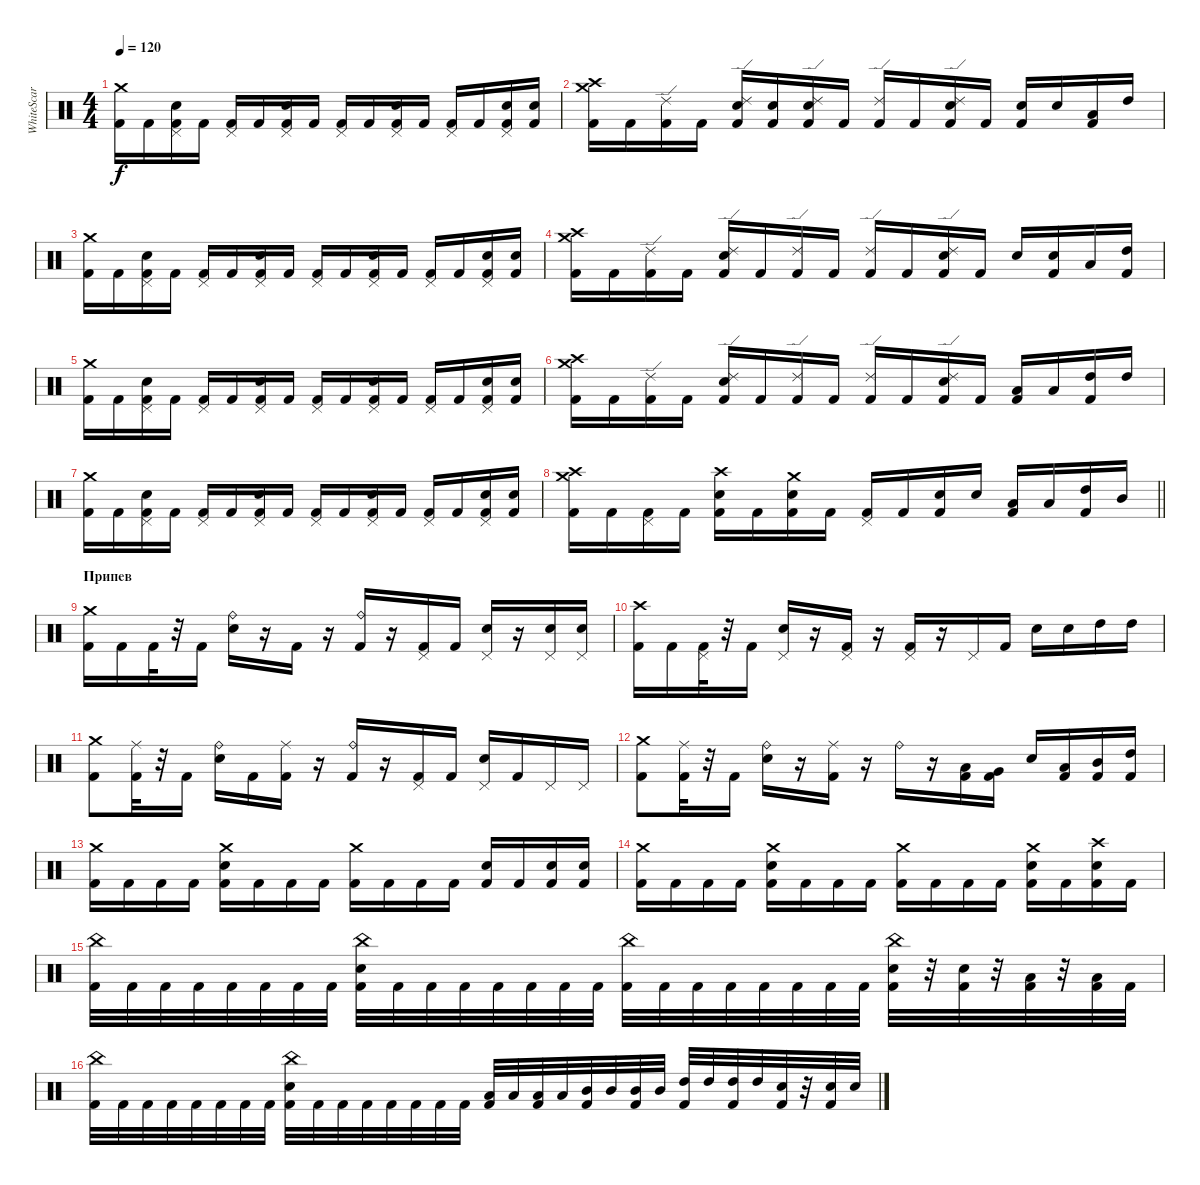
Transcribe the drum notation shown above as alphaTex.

\track ("WhiteScar" "WhiteScar") {instrument percussion}
\staff {score}
\articulation defaults
\ts (4 4)
\tempo 120
\clef neutral
\ks c
("Crash medium (hit)" "Kick (hit) 2").16{dy f} "Kick (hit) 2".16 ("Snare (hit) 2" "Pedal Hi-Hat (hit)" "Kick (hit) 2").16 "Kick (hit) 2".16 ("Pedal Hi-Hat (hit)" "Kick (hit) 2").16 "Kick (hit) 2".16 ("Snare (hit) 2" "Pedal Hi-Hat (hit)" "Kick (hit) 2").16 "Kick (hit) 2".16 ("Pedal Hi-Hat (hit)" "Kick (hit) 2").16 "Kick (hit) 2".16 ("Snare (hit) 2" "Pedal Hi-Hat (hit)" "Kick (hit) 2").16 "Kick (hit) 2".16 ("Pedal Hi-Hat (hit)" "Kick (hit) 2").16 "Kick (hit) 2".16 ("Snare (hit) 2" "Pedal Hi-Hat (hit)" "Kick (hit) 2").16 ("Snare (hit) 2" "Kick (hit) 2").16 |
("Crash high (hit)" "Crash medium (hit)" "Kick (hit) 2").16 "Kick (hit) 2".16 ("Ride (edge) 2" "Kick (hit) 2").16 "Kick (hit) 2".16 ("Snare (hit) 2" "Ride (edge) 2" "Kick (hit) 2").16 ("Snare (hit) 2" "Kick (hit) 2").16 ("Snare (hit) 2" "Ride (edge) 2" "Kick (hit) 2").16 "Kick (hit) 2".16 ("Ride (edge) 2" "Kick (hit) 2").16 "Kick (hit) 2".16 ("Snare (hit) 2" "Ride (edge) 2" "Kick (hit) 2").16 "Kick (hit) 2".16 ("Snare (hit) 2" "Kick (hit) 2").16 "Snare (hit) 2".16 ("Low Tom (hit)" "Kick (hit) 2").16 "High Tom (hit)".16 |
("Crash medium (hit)" "Kick (hit) 2").16 "Kick (hit) 2".16 ("Snare (hit) 2" "Pedal Hi-Hat (hit)" "Kick (hit) 2").16 "Kick (hit) 2".16 ("Pedal Hi-Hat (hit)" "Kick (hit) 2").16 "Kick (hit) 2".16 ("Snare (hit) 2" "Pedal Hi-Hat (hit)" "Kick (hit) 2").16 "Kick (hit) 2".16 ("Pedal Hi-Hat (hit)" "Kick (hit) 2").16 "Kick (hit) 2".16 ("Snare (hit) 2" "Pedal Hi-Hat (hit)" "Kick (hit) 2").16 "Kick (hit) 2".16 ("Pedal Hi-Hat (hit)" "Kick (hit) 2").16 "Kick (hit) 2".16 ("Snare (hit) 2" "Pedal Hi-Hat (hit)" "Kick (hit) 2").16 ("Snare (hit) 2" "Kick (hit) 2").16 |
("Crash high (hit)" "Crash medium (hit)" "Kick (hit) 2").16 "Kick (hit) 2".16 ("Ride (edge) 2" "Kick (hit) 2").16 "Kick (hit) 2".16 ("Snare (hit) 2" "Ride (edge) 2" "Kick (hit) 2").16 "Kick (hit) 2".16 ("Ride (edge) 2" "Kick (hit) 2").16 "Kick (hit) 2".16 ("Ride (edge) 2" "Kick (hit) 2").16 "Kick (hit) 2".16 ("Snare (hit) 2" "Ride (edge) 2" "Kick (hit) 2").16 "Kick (hit) 2".16 "Snare (hit) 2".16 ("Snare (hit) 2" "Kick (hit) 2").16 "Low Tom (hit)".16 ("High Tom (hit)" "Kick (hit) 2").16 |
("Crash medium (hit)" "Kick (hit) 2").16 "Kick (hit) 2".16 ("Snare (hit) 2" "Pedal Hi-Hat (hit)" "Kick (hit) 2").16 "Kick (hit) 2".16 ("Pedal Hi-Hat (hit)" "Kick (hit) 2").16 "Kick (hit) 2".16 ("Snare (hit) 2" "Pedal Hi-Hat (hit)" "Kick (hit) 2").16 "Kick (hit) 2".16 ("Pedal Hi-Hat (hit)" "Kick (hit) 2").16 "Kick (hit) 2".16 ("Snare (hit) 2" "Pedal Hi-Hat (hit)" "Kick (hit) 2").16 "Kick (hit) 2".16 ("Pedal Hi-Hat (hit)" "Kick (hit) 2").16 "Kick (hit) 2".16 ("Snare (hit) 2" "Pedal Hi-Hat (hit)" "Kick (hit) 2").16 ("Snare (hit) 2" "Kick (hit) 2").16 |
("Crash high (hit)" "Crash medium (hit)" "Kick (hit) 2").16 "Kick (hit) 2".16 ("Ride (edge) 2" "Kick (hit) 2").16 "Kick (hit) 2".16 ("Snare (hit) 2" "Ride (edge) 2" "Kick (hit) 2").16 "Kick (hit) 2".16 ("Ride (edge) 2" "Kick (hit) 2").16 "Kick (hit) 2".16 ("Ride (edge) 2" "Kick (hit) 2").16 "Kick (hit) 2".16 ("Snare (hit) 2" "Ride (edge) 2" "Kick (hit) 2").16 "Kick (hit) 2".16 ("Low Tom (hit)" "Kick (hit) 2").16 "Low Tom (hit)".16 ("High Tom (hit)" "Kick (hit) 2").16 "High Tom (hit)".16 |
("Crash medium (hit)" "Kick (hit) 2").16 "Kick (hit) 2".16 ("Snare (hit) 2" "Pedal Hi-Hat (hit)" "Kick (hit) 2").16 "Kick (hit) 2".16 ("Pedal Hi-Hat (hit)" "Kick (hit) 2").16 "Kick (hit) 2".16 ("Snare (hit) 2" "Pedal Hi-Hat (hit)" "Kick (hit) 2").16 "Kick (hit) 2".16 ("Pedal Hi-Hat (hit)" "Kick (hit) 2").16 "Kick (hit) 2".16 ("Snare (hit) 2" "Pedal Hi-Hat (hit)" "Kick (hit) 2").16 "Kick (hit) 2".16 ("Pedal Hi-Hat (hit)" "Kick (hit) 2").16 "Kick (hit) 2".16 ("Snare (hit) 2" "Pedal Hi-Hat (hit)" "Kick (hit) 2").16 ("Snare (hit) 2" "Kick (hit) 2").16 |
\barLineRight lightlight
("Crash high (hit)" "Crash medium (hit)" "Kick (hit) 2").16 "Kick (hit) 2".16 ("Pedal Hi-Hat (hit)" "Kick (hit) 2").16 "Kick (hit) 2".16 ("Crash high (hit)" "Snare (hit) 2" "Kick (hit) 2").16 "Kick (hit) 2".16 ("Crash medium (hit)" "Snare (hit) 2" "Kick (hit) 2").16 "Kick (hit) 2".16 ("Pedal Hi-Hat (hit)" "Kick (hit) 2").16 "Kick (hit) 2".16 ("Snare (hit) 2" "Kick (hit) 2").16 "Snare (hit) 2".16 ("Low Tom (hit)" "Kick (hit) 2").16 "Low Tom (hit)".16 ("High Tom (hit)" "Kick (hit) 2").16 "Mid Tom (hit)".16 |
\section ("" "Припев")
("Crash medium (hit)" "Kick (hit) 2").16 "Kick (hit) 2".16 "Kick (hit) 2".32 r.32 "Kick (hit) 2".16 ("Ride (bell)" "Snare (hit) 2").16 r.16 "Kick (hit) 2".16 r.16 ("Ride (bell)" "Kick (hit) 2").16 r.16 ("Pedal Hi-Hat (hit)" "Kick (hit) 2").16 "Kick (hit) 2".16 ("Pedal Hi-Hat (hit)" "Snare (hit) 2").16 r.16 ("Pedal Hi-Hat (hit)" "Snare (hit) 2").16 ("Pedal Hi-Hat (hit)" "Snare (hit) 2").16 |
("Crash high (hit)" "Kick (hit) 2").16 "Kick (hit) 2".16 ("Pedal Hi-Hat (hit)" "Kick (hit) 2").32 r.32 "Kick (hit) 2".16 ("Pedal Hi-Hat (hit)" "Snare (hit) 2").16 r.16 ("Pedal Hi-Hat (hit)" "Kick (hit) 2").16 r.16 ("Pedal Hi-Hat (hit)" "Kick (hit) 2").16 r.16 "Pedal Hi-Hat (hit)".16 "Kick (hit) 2".16 "Snare (hit) 2".16 "Snare (hit) 2".16 "High Tom (hit)".16 "High Tom (hit)".16 |
("Crash medium (hit)" "Kick (hit) 2").8 ("Ride (middle)" "Kick (hit) 2").32 r.32 "Kick (hit) 2".16 ("Ride (bell)" "Snare (hit) 2").16 "Kick (hit) 2".16 ("Ride (middle)" "Kick (hit) 2").16 r.16 ("Ride (bell)" "Kick (hit) 2").16 r.16 ("Pedal Hi-Hat (hit)" "Kick (hit) 2").16 "Kick (hit) 2".16 ("Pedal Hi-Hat (hit)" "Snare (hit) 2").16 "Kick (hit) 2".16 "Pedal Hi-Hat (hit)".16 "Pedal Hi-Hat (hit)".16 |
("Crash medium (hit)" "Kick (hit) 2").8 ("Ride (middle)" "Kick (hit) 2").32 r.32 "Kick (hit) 2".16 ("Ride (bell)" "Snare (hit) 2").16 r.16 ("Ride (middle)" "Kick (hit) 2").16 r.16 "Ride (bell)".16 r.16 ("Low Floor Tom (hit)" "Kick (hit) 2").16 ("Very Low Tom (hit)" "Kick (hit) 2").16 "Snare (hit) 2".16 ("Low Tom (hit)" "Kick (hit) 2").16 ("Mid Tom (hit)" "Kick (hit) 2").16 ("High Tom (hit)" "Kick (hit) 2").16 |
("Crash medium (hit)" "Kick (hit) 2").16 "Kick (hit) 2".16 "Kick (hit) 2".16 "Kick (hit) 2".16 ("Crash medium (hit)" "Snare (hit) 2" "Kick (hit) 2").16 "Kick (hit) 2".16 "Kick (hit) 2".16 "Kick (hit) 2".16 ("Crash medium (hit)" "Kick (hit) 2").16 "Kick (hit) 2".16 "Kick (hit) 2".16 "Kick (hit) 2".16 ("Snare (hit) 2" "Kick (hit) 2").16 "Kick (hit) 2".16 ("Snare (hit) 2" "Kick (hit) 2").16 ("Snare (hit) 2" "Kick (hit) 2").16 |
("Crash medium (hit)" "Kick (hit) 2").16 "Kick (hit) 2".16 "Kick (hit) 2".16 "Kick (hit) 2".16 ("Crash medium (hit)" "Snare (hit) 2" "Kick (hit) 2").16 "Kick (hit) 2".16 "Kick (hit) 2".16 "Kick (hit) 2".16 ("Crash medium (hit)" "Kick (hit) 2").16 "Kick (hit) 2".16 "Kick (hit) 2".16 "Kick (hit) 2".16 ("Crash medium (hit)" "Snare (hit) 2" "Kick (hit) 2").16 "Kick (hit) 2".16 ("Crash high (hit)" "Snare (hit) 2" "Kick (hit) 2").16 "Kick (hit) 2".16 |
("China (hit)" "Kick (hit) 2").32 "Kick (hit) 2".32 "Kick (hit) 2".32 "Kick (hit) 2".32 "Kick (hit) 2".32 "Kick (hit) 2".32 "Kick (hit) 2".32 "Kick (hit) 2".32 ("China (hit)" "Snare (hit) 2" "Kick (hit) 2").32 "Kick (hit) 2".32 "Kick (hit) 2".32 "Kick (hit) 2".32 "Kick (hit) 2".32 "Kick (hit) 2".32 "Kick (hit) 2".32 "Kick (hit) 2".32 ("China (hit)" "Kick (hit) 2").32 "Kick (hit) 2".32 "Kick (hit) 2".32 "Kick (hit) 2".32 "Kick (hit) 2".32 "Kick (hit) 2".32 "Kick (hit) 2".32 "Kick (hit) 2".32 ("China (hit)" "Snare (hit) 2" "Kick (hit) 2").32 r.32 ("Snare (hit) 2" "Kick (hit) 2").32 r.32 ("Low Tom (hit)" "Kick (hit) 2").32 r.32 ("Low Tom (hit)" "Kick (hit) 2").32 "Kick (hit) 2".32 |
("China (hit)" "Kick (hit) 2").32 "Kick (hit) 2".32 "Kick (hit) 2".32 "Kick (hit) 2".32 "Kick (hit) 2".32 "Kick (hit) 2".32 "Kick (hit) 2".32 "Kick (hit) 2".32 ("China (hit)" "Snare (hit) 2" "Kick (hit) 2").32 "Kick (hit) 2".32 "Kick (hit) 2".32 "Kick (hit) 2".32 "Kick (hit) 2".32 "Kick (hit) 2".32 "Kick (hit) 2".32 "Kick (hit) 2".32 ("Low Tom (hit)" "Kick (hit) 2").32 "Low Tom (hit)".32 ("Low Tom (hit)" "Kick (hit) 2").32 "Low Tom (hit)".32 ("Mid Tom (hit)" "Kick (hit) 2").32 "Mid Tom (hit)".32 ("Mid Tom (hit)" "Kick (hit) 2").32 "Mid Tom (hit)".32 ("High Tom (hit)" "Kick (hit) 2").32 "High Tom (hit)".32 ("High Tom (hit)" "Kick (hit) 2").32 "High Tom (hit)".32 ("Snare (hit) 2" "Kick (hit) 2").32 r.32 ("Snare (hit) 2" "Kick (hit) 2").32 "Snare (hit) 2".32
